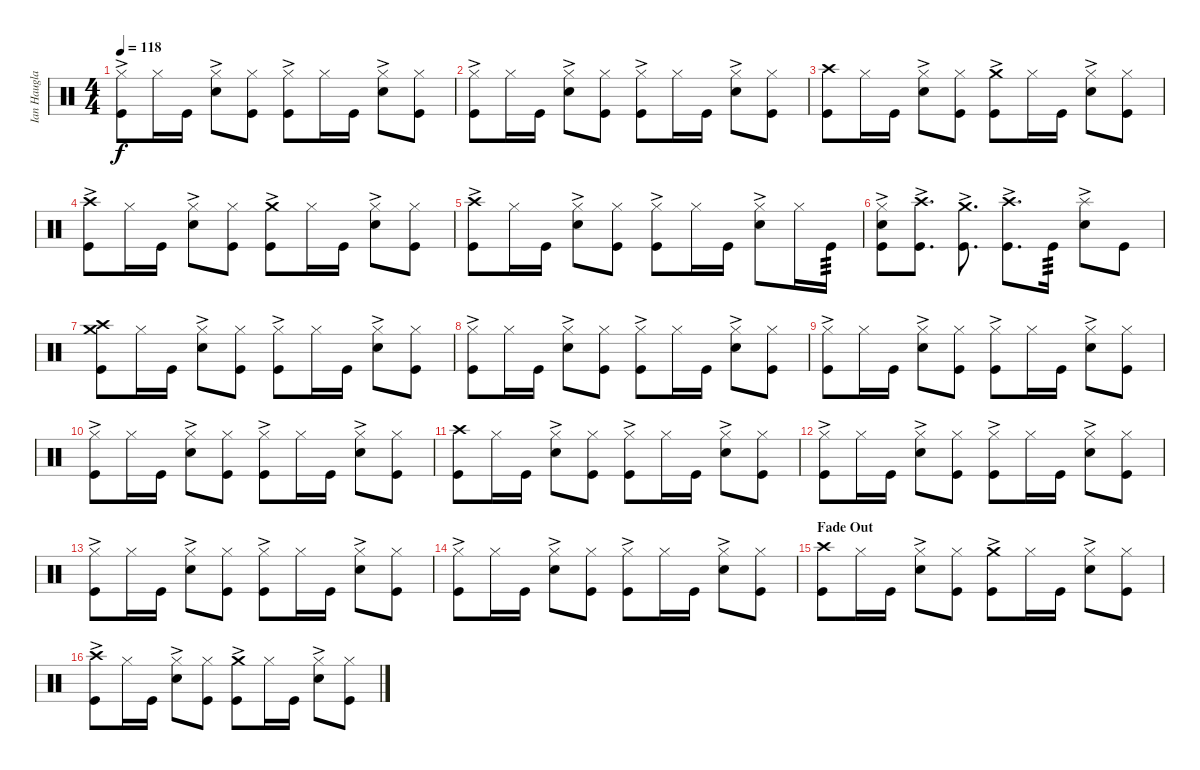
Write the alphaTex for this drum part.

\track ("Ian Haugland - Tama Imperialstar Kit - " "Ian Haugla") {instrument percussion}
\staff {score}
\articulation defaults
\ts (4 4)
\tempo 118
\clef neutral
\ks c
("Hi-Hat (closed)"{ac} "Kick (hit)").8{dy f} "Hi-Hat (closed)".16 "Kick (hit)".16 ("Hi-Hat (closed)"{ac} "Snare (hit) 2").8 ("Hi-Hat (closed)" "Kick (hit)").8 ("Hi-Hat (closed)"{ac} "Kick (hit)").8 "Hi-Hat (closed)".16 "Kick (hit)".16 ("Hi-Hat (closed)"{ac} "Snare (hit) 2").8 ("Hi-Hat (closed)" "Kick (hit)").8 |
("Hi-Hat (closed)"{ac} "Kick (hit)").8 "Hi-Hat (closed)".16 "Kick (hit)".16 ("Hi-Hat (closed)"{ac} "Snare (hit) 2").8 ("Hi-Hat (closed)" "Kick (hit)").8 ("Hi-Hat (closed)"{ac} "Kick (hit)").8 "Hi-Hat (closed)".16 "Kick (hit)".16 ("Hi-Hat (closed)"{ac} "Snare (hit) 2").8 ("Hi-Hat (closed)" "Kick (hit)").8 |
("Crash high (hit)" "Kick (hit)").8 "Hi-Hat (closed)".16 "Kick (hit)".16 ("Hi-Hat (closed)"{ac} "Snare (hit) 2").8 ("Hi-Hat (closed)" "Kick (hit)").8 ("Crash medium (hit)"{ac} "Kick (hit)").8 "Hi-Hat (closed)".16 "Kick (hit)".16 ("Hi-Hat (closed)"{ac} "Snare (hit) 2").8 ("Hi-Hat (closed)" "Kick (hit)").8 |
("Crash high (hit)"{ac} "Kick (hit)").8 "Hi-Hat (closed)".16 "Kick (hit)".16 ("Hi-Hat (closed)"{ac} "Snare (hit) 2").8 ("Hi-Hat (closed)" "Kick (hit)").8 ("Crash medium (hit)"{ac} "Kick (hit)").8 "Hi-Hat (closed)".16 "Kick (hit)".16 ("Hi-Hat (closed)"{ac} "Snare (hit) 2").8 ("Hi-Hat (closed)" "Kick (hit)").8 |
("Crash high (hit)"{ac} "Kick (hit)").8 "Hi-Hat (closed)".16 "Kick (hit)".16 ("Hi-Hat (closed)"{ac} "Snare (hit) 2").8 ("Hi-Hat (closed)" "Kick (hit)").8 ("Hi-Hat (closed)"{ac} "Kick (hit)").8 "Hi-Hat (closed)".16 "Kick (hit)".16 ("Hi-Hat (closed)"{ac} "Snare (hit) 2").8 "Hi-Hat (closed)".16 "Kick (hit)".16{tp 3} |
("Hi-Hat (closed)"{ac} "Snare (hit) 2" "Kick (hit)").8 ("Crash high (hit)"{ac} "Kick (hit)").8{d} ("Crash medium (hit)"{ac} "Kick (hit)").8{d} ("Crash high (hit)"{ac} "Kick (hit)").8{d} "Kick (hit)".16{tp 3} ("Splash (hit)"{ac} "Snare (hit) 2").8 "Kick (hit)".8 |
("Crash high (hit)" "Crash medium (hit)" "Kick (hit)").8 "Hi-Hat (closed)".16 "Kick (hit)".16 ("Hi-Hat (closed)"{ac} "Snare (hit) 2").8 ("Hi-Hat (closed)" "Kick (hit)").8 ("Hi-Hat (closed)"{ac} "Kick (hit)").8 "Hi-Hat (closed)".16 "Kick (hit)".16 ("Hi-Hat (closed)"{ac} "Snare (hit) 2").8 ("Hi-Hat (closed)" "Kick (hit)").8 |
("Hi-Hat (closed)"{ac} "Kick (hit)").8 "Hi-Hat (closed)".16 "Kick (hit)".16 ("Hi-Hat (closed)"{ac} "Snare (hit) 2").8 ("Hi-Hat (closed)" "Kick (hit)").8 ("Hi-Hat (closed)"{ac} "Kick (hit)").8 "Hi-Hat (closed)".16 "Kick (hit)".16 ("Hi-Hat (closed)"{ac} "Snare (hit) 2").8 ("Hi-Hat (closed)" "Kick (hit)").8 |
("Hi-Hat (closed)"{ac} "Kick (hit)").8 "Hi-Hat (closed)".16 "Kick (hit)".16 ("Hi-Hat (closed)"{ac} "Snare (hit) 2").8 ("Hi-Hat (closed)" "Kick (hit)").8 ("Hi-Hat (closed)"{ac} "Kick (hit)").8 "Hi-Hat (closed)".16 "Kick (hit)".16 ("Hi-Hat (closed)"{ac} "Snare (hit) 2").8 ("Hi-Hat (closed)" "Kick (hit)").8 |
("Hi-Hat (closed)"{ac} "Kick (hit)").8 "Hi-Hat (closed)".16 "Kick (hit)".16 ("Hi-Hat (closed)"{ac} "Snare (hit) 2").8 ("Hi-Hat (closed)" "Kick (hit)").8 ("Hi-Hat (closed)"{ac} "Kick (hit)").8 "Hi-Hat (closed)".16 "Kick (hit)".16 ("Hi-Hat (closed)"{ac} "Snare (hit) 2").8 ("Hi-Hat (closed)" "Kick (hit)").8 |
("Crash high (hit)" "Kick (hit)").8 "Hi-Hat (closed)".16 "Kick (hit)".16 ("Hi-Hat (closed)"{ac} "Snare (hit) 2").8 ("Hi-Hat (closed)" "Kick (hit)").8 ("Hi-Hat (closed)"{ac} "Kick (hit)").8 "Hi-Hat (closed)".16 "Kick (hit)".16 ("Hi-Hat (closed)"{ac} "Snare (hit) 2").8 ("Hi-Hat (closed)" "Kick (hit)").8 |
("Hi-Hat (closed)"{ac} "Kick (hit)").8 "Hi-Hat (closed)".16 "Kick (hit)".16 ("Hi-Hat (closed)"{ac} "Snare (hit) 2").8 ("Hi-Hat (closed)" "Kick (hit)").8 ("Hi-Hat (closed)"{ac} "Kick (hit)").8 "Hi-Hat (closed)".16 "Kick (hit)".16 ("Hi-Hat (closed)"{ac} "Snare (hit) 2").8 ("Hi-Hat (closed)" "Kick (hit)").8 |
("Hi-Hat (closed)"{ac} "Kick (hit)").8 "Hi-Hat (closed)".16 "Kick (hit)".16 ("Hi-Hat (closed)"{ac} "Snare (hit) 2").8 ("Hi-Hat (closed)" "Kick (hit)").8 ("Hi-Hat (closed)"{ac} "Kick (hit)").8 "Hi-Hat (closed)".16 "Kick (hit)".16 ("Hi-Hat (closed)"{ac} "Snare (hit) 2").8 ("Hi-Hat (closed)" "Kick (hit)").8 |
("Hi-Hat (closed)"{ac} "Kick (hit)").8 "Hi-Hat (closed)".16 "Kick (hit)".16 ("Hi-Hat (closed)"{ac} "Snare (hit) 2").8 ("Hi-Hat (closed)" "Kick (hit)").8 ("Hi-Hat (closed)"{ac} "Kick (hit)").8 "Hi-Hat (closed)".16 "Kick (hit)".16 ("Hi-Hat (closed)"{ac} "Snare (hit) 2").8 ("Hi-Hat (closed)" "Kick (hit)").8 |
\section ("" "Fade Out")
("Crash high (hit)" "Kick (hit)").8 "Hi-Hat (closed)".16 "Kick (hit)".16 ("Hi-Hat (closed)"{ac} "Snare (hit) 2").8 ("Hi-Hat (closed)" "Kick (hit)").8 ("Crash medium (hit)"{ac} "Kick (hit)").8 "Hi-Hat (closed)".16 "Kick (hit)".16 ("Hi-Hat (closed)"{ac} "Snare (hit) 2").8 ("Hi-Hat (closed)" "Kick (hit)").8 |
("Crash high (hit)"{ac} "Kick (hit)").8 "Hi-Hat (closed)".16 "Kick (hit)".16 ("Hi-Hat (closed)"{ac} "Snare (hit) 2").8 ("Hi-Hat (closed)" "Kick (hit)").8 ("Crash medium (hit)"{ac} "Kick (hit)").8 "Hi-Hat (closed)".16 "Kick (hit)".16 ("Hi-Hat (closed)"{ac} "Snare (hit) 2").8 ("Hi-Hat (closed)" "Kick (hit)").8
